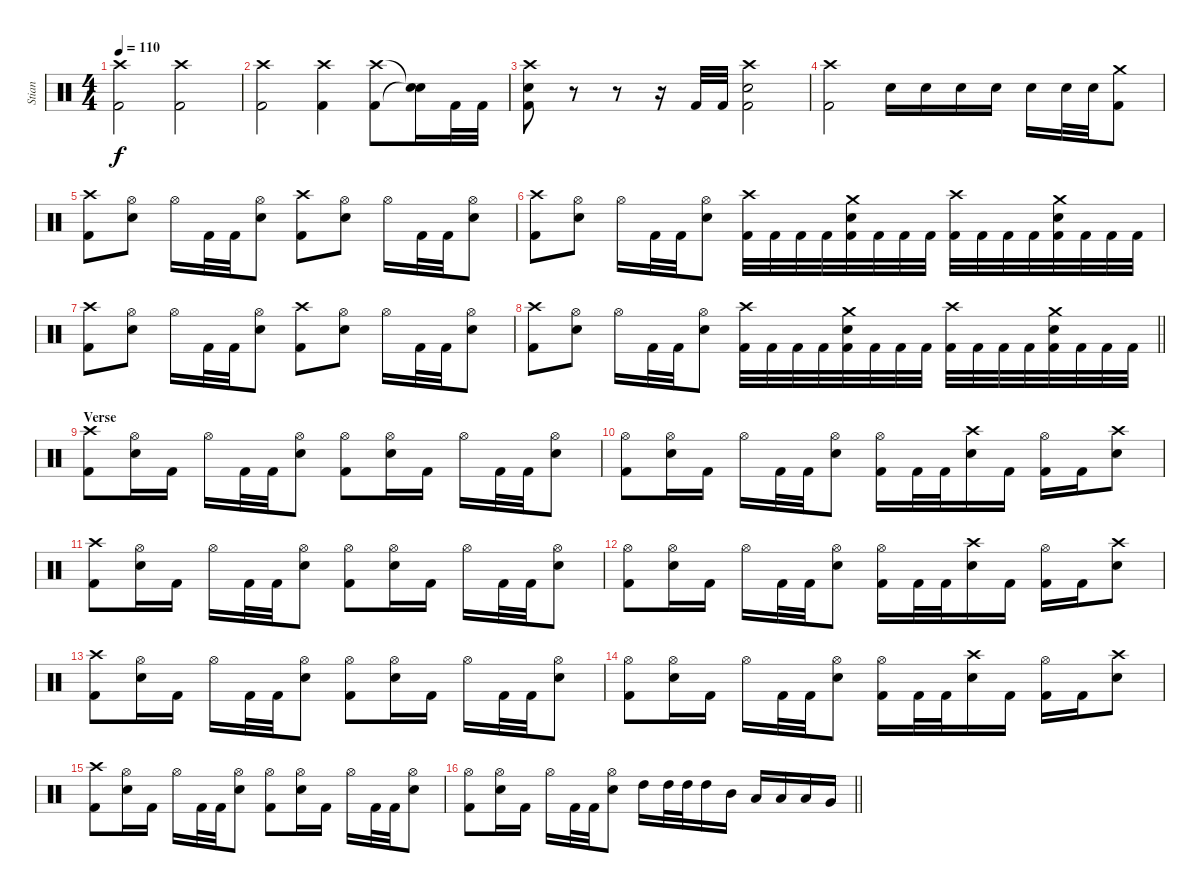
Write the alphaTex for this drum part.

\track ("Stian" "Stian") {instrument percussion}
\staff {score}
\articulation defaults
\ts (4 4)
\tempo 110
\clef neutral
\ks c
("Crash high (hit)" "Kick (hit) 2").2{dy f} ("Crash high (hit)" "Kick (hit) 2").2 |
("Crash high (hit)" "Kick (hit) 2").2 ("Crash high (hit)" "Kick (hit) 2").4 ("Crash high (hit)" "Kick (hit) 2").8 ("Snare (hit)"{t} "Snare (hit)"{t}).16 "Kick (hit) 2".32 "Kick (hit) 2".32 |
("Crash high (hit)" "Electric Snare (hit)" "Kick (hit) 2").8 r.8 r.8 r.16 "Kick (hit) 2".32 "Kick (hit) 2".32 ("Crash high (hit)" "Electric Snare (hit)" "Kick (hit) 2").2 |
("Crash high (hit)" "Kick (hit) 2").2 "Electric Snare (hit)".16 "Electric Snare (hit)".16 "Electric Snare (hit)".16 "Electric Snare (hit)".16 "Electric Snare (hit)".16 "Electric Snare (hit)".32 "Electric Snare (hit)".32 ("Crash medium (hit)" "Kick (hit) 2").8 |
("Crash high (hit)" "Kick (hit) 2").8 ("Hi-Hat (open)" "Electric Snare (hit)").8 "Hi-Hat (open)".16 "Kick (hit) 2".32 "Kick (hit) 2".32 ("Hi-Hat (open)" "Electric Snare (hit)").8 ("Crash high (hit)" "Kick (hit) 2").8 ("Hi-Hat (open)" "Electric Snare (hit)").8 "Hi-Hat (open)".16 "Kick (hit) 2".32 "Kick (hit) 2".32 ("Hi-Hat (open)" "Electric Snare (hit)").8 |
("Crash high (hit)" "Kick (hit) 2").8 ("Hi-Hat (open)" "Electric Snare (hit)").8 "Hi-Hat (open)".16 "Kick (hit) 2".32 "Kick (hit) 2".32 ("Hi-Hat (open)" "Electric Snare (hit)").8 ("Crash high (hit)" "Kick (hit) 2").32 "Kick (hit) 2".32 "Kick (hit) 2".32 "Kick (hit) 2".32 ("Crash medium (hit)" "Electric Snare (hit)" "Kick (hit) 2").32 "Kick (hit) 2".32 "Kick (hit) 2".32 "Kick (hit) 2".32 ("Crash high (hit)" "Kick (hit) 2").32 "Kick (hit) 2".32 "Kick (hit) 2".32 "Kick (hit) 2".32 ("Crash medium (hit)" "Electric Snare (hit)" "Kick (hit) 2").32 "Kick (hit) 2".32 "Kick (hit) 2".32 "Kick (hit) 2".32 |
("Crash high (hit)" "Kick (hit) 2").8 ("Hi-Hat (open)" "Electric Snare (hit)").8 "Hi-Hat (open)".16 "Kick (hit) 2".32 "Kick (hit) 2".32 ("Hi-Hat (open)" "Electric Snare (hit)").8 ("Crash high (hit)" "Kick (hit) 2").8 ("Hi-Hat (open)" "Electric Snare (hit)").8 "Hi-Hat (open)".16 "Kick (hit) 2".32 "Kick (hit) 2".32 ("Hi-Hat (open)" "Electric Snare (hit)").8 |
\barLineRight lightlight
("Crash high (hit)" "Kick (hit) 2").8 ("Hi-Hat (open)" "Electric Snare (hit)").8 "Hi-Hat (open)".16 "Kick (hit) 2".32 "Kick (hit) 2".32 ("Hi-Hat (open)" "Electric Snare (hit)").8 ("Crash high (hit)" "Kick (hit) 2").32 "Kick (hit) 2".32 "Kick (hit) 2".32 "Kick (hit) 2".32 ("Crash medium (hit)" "Electric Snare (hit)" "Kick (hit) 2").32 "Kick (hit) 2".32 "Kick (hit) 2".32 "Kick (hit) 2".32 ("Crash high (hit)" "Kick (hit) 2").32 "Kick (hit) 2".32 "Kick (hit) 2".32 "Kick (hit) 2".32 ("Crash medium (hit)" "Electric Snare (hit)" "Kick (hit) 2").32 "Kick (hit) 2".32 "Kick (hit) 2".32 "Kick (hit) 2".32 |
\section ("" "Verse")
("Crash high (hit)" "Kick (hit) 2").8 ("Hi-Hat (open)" "Electric Snare (hit)").16 "Kick (hit) 2".16 "Hi-Hat (open)".16 "Kick (hit) 2".32 "Kick (hit) 2".32 ("Hi-Hat (open)" "Electric Snare (hit)").8 ("Hi-Hat (open)" "Kick (hit) 2").8 ("Hi-Hat (open)" "Electric Snare (hit)").16 "Kick (hit) 2".16 "Hi-Hat (open)".16 "Kick (hit) 2".32 "Kick (hit) 2".32 ("Hi-Hat (open)" "Electric Snare (hit)").8 |
("Hi-Hat (open)" "Kick (hit) 2").8 ("Hi-Hat (open)" "Electric Snare (hit)").16 "Kick (hit) 2".16 "Hi-Hat (open)".16 "Kick (hit) 2".32 "Kick (hit) 2".32 ("Hi-Hat (open)" "Electric Snare (hit)").8 ("Hi-Hat (open)" "Kick (hit) 2").16 "Kick (hit) 2".32 "Kick (hit) 2".32 ("Crash high (hit)" "Electric Snare (hit)").16 "Kick (hit) 2".16 ("Hi-Hat (open)" "Kick (hit) 2").16 "Kick (hit) 2".16 ("Crash high (hit)" "Electric Snare (hit)").8 |
("Crash high (hit)" "Kick (hit) 2").8 ("Hi-Hat (open)" "Electric Snare (hit)").16 "Kick (hit) 2".16 "Hi-Hat (open)".16 "Kick (hit) 2".32 "Kick (hit) 2".32 ("Hi-Hat (open)" "Electric Snare (hit)").8 ("Hi-Hat (open)" "Kick (hit) 2").8 ("Hi-Hat (open)" "Electric Snare (hit)").16 "Kick (hit) 2".16 "Hi-Hat (open)".16 "Kick (hit) 2".32 "Kick (hit) 2".32 ("Hi-Hat (open)" "Electric Snare (hit)").8 |
("Hi-Hat (open)" "Kick (hit) 2").8 ("Hi-Hat (open)" "Electric Snare (hit)").16 "Kick (hit) 2".16 "Hi-Hat (open)".16 "Kick (hit) 2".32 "Kick (hit) 2".32 ("Hi-Hat (open)" "Electric Snare (hit)").8 ("Hi-Hat (open)" "Kick (hit) 2").16 "Kick (hit) 2".32 "Kick (hit) 2".32 ("Crash high (hit)" "Electric Snare (hit)").16 "Kick (hit) 2".16 ("Hi-Hat (open)" "Kick (hit) 2").16 "Kick (hit) 2".16 ("Crash high (hit)" "Electric Snare (hit)").8 |
("Crash high (hit)" "Kick (hit) 2").8 ("Hi-Hat (open)" "Electric Snare (hit)").16 "Kick (hit) 2".16 "Hi-Hat (open)".16 "Kick (hit) 2".32 "Kick (hit) 2".32 ("Hi-Hat (open)" "Electric Snare (hit)").8 ("Hi-Hat (open)" "Kick (hit) 2").8 ("Hi-Hat (open)" "Electric Snare (hit)").16 "Kick (hit) 2".16 "Hi-Hat (open)".16 "Kick (hit) 2".32 "Kick (hit) 2".32 ("Hi-Hat (open)" "Electric Snare (hit)").8 |
("Hi-Hat (open)" "Kick (hit) 2").8 ("Hi-Hat (open)" "Electric Snare (hit)").16 "Kick (hit) 2".16 "Hi-Hat (open)".16 "Kick (hit) 2".32 "Kick (hit) 2".32 ("Hi-Hat (open)" "Electric Snare (hit)").8 ("Hi-Hat (open)" "Kick (hit) 2").16 "Kick (hit) 2".32 "Kick (hit) 2".32 ("Crash high (hit)" "Electric Snare (hit)").16 "Kick (hit) 2".16 ("Hi-Hat (open)" "Kick (hit) 2").16 "Kick (hit) 2".16 ("Crash high (hit)" "Electric Snare (hit)").8 |
("Crash high (hit)" "Kick (hit) 2").8 ("Hi-Hat (open)" "Electric Snare (hit)").16 "Kick (hit) 2".16 "Hi-Hat (open)".16 "Kick (hit) 2".32 "Kick (hit) 2".32 ("Hi-Hat (open)" "Electric Snare (hit)").8 ("Hi-Hat (open)" "Kick (hit) 2").8 ("Hi-Hat (open)" "Electric Snare (hit)").16 "Kick (hit) 2".16 "Hi-Hat (open)".16 "Kick (hit) 2".32 "Kick (hit) 2".32 ("Hi-Hat (open)" "Electric Snare (hit)").8 |
\barLineRight lightlight
("Hi-Hat (open)" "Kick (hit) 2").8 ("Hi-Hat (open)" "Electric Snare (hit)").16 "Kick (hit) 2".16 "Hi-Hat (open)".16 "Kick (hit) 2".32 "Kick (hit) 2".32 ("Hi-Hat (open)" "Electric Snare (hit)").8 "High Tom (hit)".16 "High Tom (hit)".32 "High Tom (hit)".32 "High Tom (hit)".16 "Mid Tom (hit)".16 "Low Tom (hit)".16 "Low Tom (hit)".16 "Low Tom (hit)".16 "Very Low Tom (hit)".16
